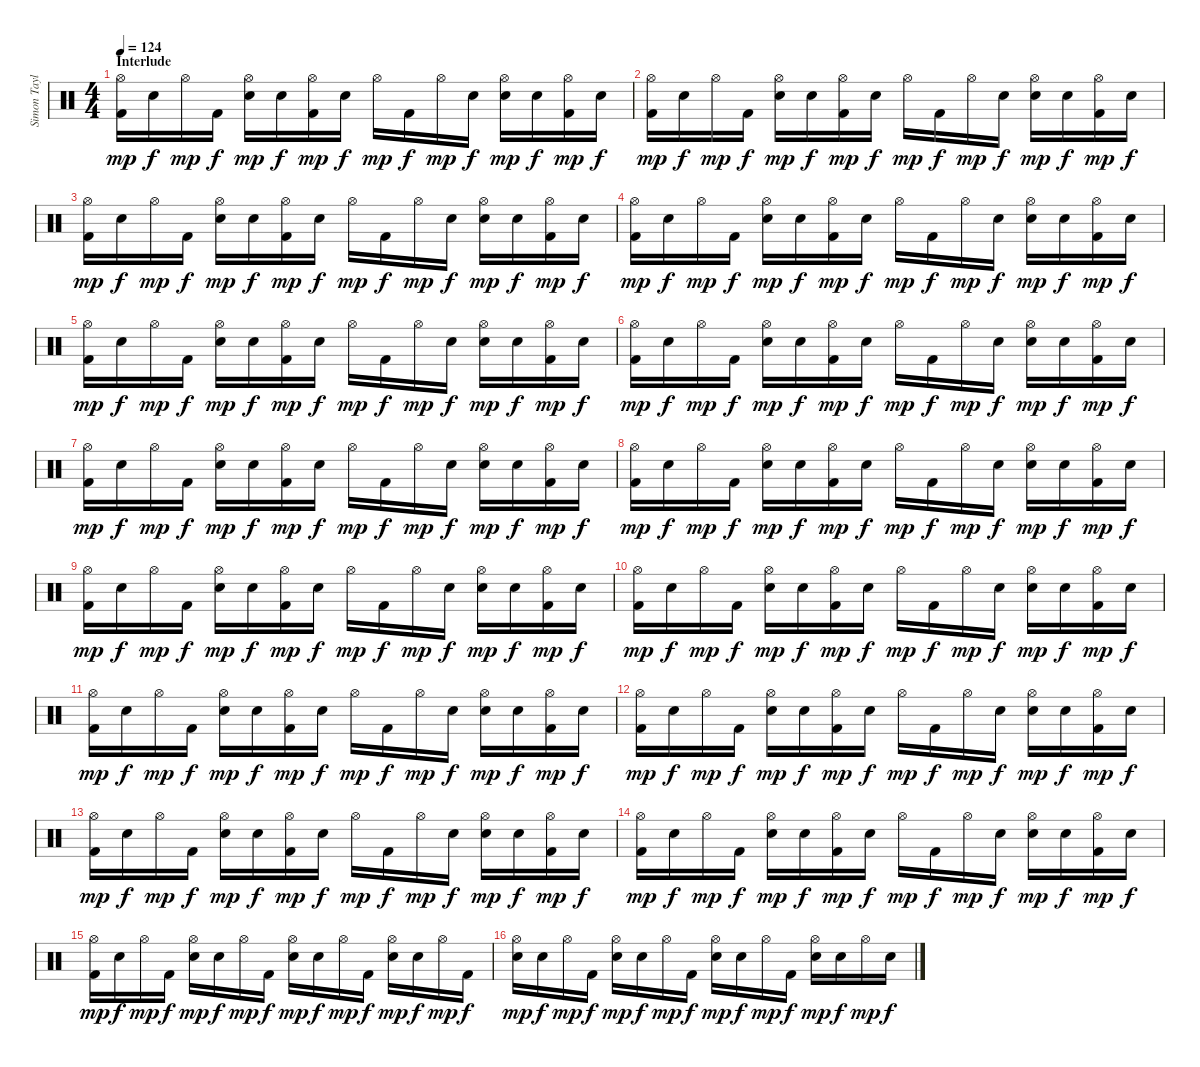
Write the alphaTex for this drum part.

\track ("Simon Taylor - Drums" "Simon Tayl") {instrument percussion}
\staff {score}
\articulation defaults
\ts (4 4)
\section ("" "Interlude")
\tempo 124
\clef neutral
\ks c
("Hi-Hat (open)" "Kick (hit) 2").16{dy mp volume 16 balance 8} "Snare (hit)".16{dy f} "Hi-Hat (open)".16{dy mp} "Kick (hit) 2".16{dy f} ("Hi-Hat (open)" "Electric Snare (hit)").16{dy mp} "Snare (hit)".16{dy f} ("Hi-Hat (open)" "Kick (hit) 2").16{dy mp} "Snare (hit)".16{dy f} "Hi-Hat (open)".16{dy mp} "Kick (hit) 2".16{dy f} "Hi-Hat (open)".16{dy mp} "Snare (hit)".16{dy f} ("Hi-Hat (open)" "Electric Snare (hit)").16{dy mp} "Snare (hit)".16{dy f} ("Hi-Hat (open)" "Kick (hit) 2").16{dy mp} "Snare (hit)".16{dy f} |
("Hi-Hat (open)" "Kick (hit) 2").16{dy mp} "Snare (hit)".16{dy f} "Hi-Hat (open)".16{dy mp} "Kick (hit) 2".16{dy f} ("Hi-Hat (open)" "Electric Snare (hit)").16{dy mp} "Snare (hit)".16{dy f} ("Hi-Hat (open)" "Kick (hit) 2").16{dy mp} "Snare (hit)".16{dy f} "Hi-Hat (open)".16{dy mp} "Kick (hit) 2".16{dy f} "Hi-Hat (open)".16{dy mp} "Snare (hit)".16{dy f} ("Hi-Hat (open)" "Electric Snare (hit)").16{dy mp} "Snare (hit)".16{dy f} ("Hi-Hat (open)" "Kick (hit) 2").16{dy mp} "Snare (hit)".16{dy f} |
("Hi-Hat (open)" "Kick (hit) 2").16{dy mp} "Snare (hit)".16{dy f} "Hi-Hat (open)".16{dy mp} "Kick (hit) 2".16{dy f} ("Hi-Hat (open)" "Electric Snare (hit)").16{dy mp} "Snare (hit)".16{dy f} ("Hi-Hat (open)" "Kick (hit) 2").16{dy mp} "Snare (hit)".16{dy f} "Hi-Hat (open)".16{dy mp} "Kick (hit) 2".16{dy f} "Hi-Hat (open)".16{dy mp} "Snare (hit)".16{dy f} ("Hi-Hat (open)" "Electric Snare (hit)").16{dy mp} "Snare (hit)".16{dy f} ("Hi-Hat (open)" "Kick (hit) 2").16{dy mp} "Snare (hit)".16{dy f} |
("Hi-Hat (open)" "Kick (hit) 2").16{dy mp} "Snare (hit)".16{dy f} "Hi-Hat (open)".16{dy mp} "Kick (hit) 2".16{dy f} ("Hi-Hat (open)" "Electric Snare (hit)").16{dy mp} "Snare (hit)".16{dy f} ("Hi-Hat (open)" "Kick (hit) 2").16{dy mp} "Snare (hit)".16{dy f} "Hi-Hat (open)".16{dy mp} "Kick (hit) 2".16{dy f} "Hi-Hat (open)".16{dy mp} "Snare (hit)".16{dy f} ("Hi-Hat (open)" "Electric Snare (hit)").16{dy mp} "Snare (hit)".16{dy f} ("Hi-Hat (open)" "Kick (hit) 2").16{dy mp} "Snare (hit)".16{dy f} |
("Hi-Hat (open)" "Kick (hit) 2").16{dy mp} "Snare (hit)".16{dy f} "Hi-Hat (open)".16{dy mp} "Kick (hit) 2".16{dy f} ("Hi-Hat (open)" "Electric Snare (hit)").16{dy mp} "Snare (hit)".16{dy f} ("Hi-Hat (open)" "Kick (hit) 2").16{dy mp} "Snare (hit)".16{dy f} "Hi-Hat (open)".16{dy mp} "Kick (hit) 2".16{dy f} "Hi-Hat (open)".16{dy mp} "Snare (hit)".16{dy f} ("Hi-Hat (open)" "Electric Snare (hit)").16{dy mp} "Snare (hit)".16{dy f} ("Hi-Hat (open)" "Kick (hit) 2").16{dy mp} "Snare (hit)".16{dy f} |
("Hi-Hat (open)" "Kick (hit) 2").16{dy mp} "Snare (hit)".16{dy f} "Hi-Hat (open)".16{dy mp} "Kick (hit) 2".16{dy f} ("Hi-Hat (open)" "Electric Snare (hit)").16{dy mp} "Snare (hit)".16{dy f} ("Hi-Hat (open)" "Kick (hit) 2").16{dy mp} "Snare (hit)".16{dy f} "Hi-Hat (open)".16{dy mp} "Kick (hit) 2".16{dy f} "Hi-Hat (open)".16{dy mp} "Snare (hit)".16{dy f} ("Hi-Hat (open)" "Electric Snare (hit)").16{dy mp} "Snare (hit)".16{dy f} ("Hi-Hat (open)" "Kick (hit) 2").16{dy mp} "Snare (hit)".16{dy f} |
("Hi-Hat (open)" "Kick (hit) 2").16{dy mp} "Snare (hit)".16{dy f} "Hi-Hat (open)".16{dy mp} "Kick (hit) 2".16{dy f} ("Hi-Hat (open)" "Electric Snare (hit)").16{dy mp} "Snare (hit)".16{dy f} ("Hi-Hat (open)" "Kick (hit) 2").16{dy mp} "Snare (hit)".16{dy f} "Hi-Hat (open)".16{dy mp} "Kick (hit) 2".16{dy f} "Hi-Hat (open)".16{dy mp} "Snare (hit)".16{dy f} ("Hi-Hat (open)" "Electric Snare (hit)").16{dy mp} "Snare (hit)".16{dy f} ("Hi-Hat (open)" "Kick (hit) 2").16{dy mp} "Snare (hit)".16{dy f} |
("Hi-Hat (open)" "Kick (hit) 2").16{dy mp} "Snare (hit)".16{dy f} "Hi-Hat (open)".16{dy mp} "Kick (hit) 2".16{dy f} ("Hi-Hat (open)" "Electric Snare (hit)").16{dy mp} "Snare (hit)".16{dy f} ("Hi-Hat (open)" "Kick (hit) 2").16{dy mp} "Snare (hit)".16{dy f} "Hi-Hat (open)".16{dy mp} "Kick (hit) 2".16{dy f} "Hi-Hat (open)".16{dy mp} "Snare (hit)".16{dy f} ("Hi-Hat (open)" "Electric Snare (hit)").16{dy mp} "Snare (hit)".16{dy f} ("Hi-Hat (open)" "Kick (hit) 2").16{dy mp} "Snare (hit)".16{dy f} |
("Hi-Hat (open)" "Kick (hit) 2").16{dy mp} "Snare (hit)".16{dy f} "Hi-Hat (open)".16{dy mp} "Kick (hit) 2".16{dy f} ("Hi-Hat (open)" "Electric Snare (hit)").16{dy mp} "Snare (hit)".16{dy f} ("Hi-Hat (open)" "Kick (hit) 2").16{dy mp} "Snare (hit)".16{dy f} "Hi-Hat (open)".16{dy mp} "Kick (hit) 2".16{dy f} "Hi-Hat (open)".16{dy mp} "Snare (hit)".16{dy f} ("Hi-Hat (open)" "Electric Snare (hit)").16{dy mp} "Snare (hit)".16{dy f} ("Hi-Hat (open)" "Kick (hit) 2").16{dy mp} "Snare (hit)".16{dy f} |
("Hi-Hat (open)" "Kick (hit) 2").16{dy mp} "Snare (hit)".16{dy f} "Hi-Hat (open)".16{dy mp} "Kick (hit) 2".16{dy f} ("Hi-Hat (open)" "Electric Snare (hit)").16{dy mp} "Snare (hit)".16{dy f} ("Hi-Hat (open)" "Kick (hit) 2").16{dy mp} "Snare (hit)".16{dy f} "Hi-Hat (open)".16{dy mp} "Kick (hit) 2".16{dy f} "Hi-Hat (open)".16{dy mp} "Snare (hit)".16{dy f} ("Hi-Hat (open)" "Electric Snare (hit)").16{dy mp} "Snare (hit)".16{dy f} ("Hi-Hat (open)" "Kick (hit) 2").16{dy mp} "Snare (hit)".16{dy f} |
("Hi-Hat (open)" "Kick (hit) 2").16{dy mp} "Snare (hit)".16{dy f} "Hi-Hat (open)".16{dy mp} "Kick (hit) 2".16{dy f} ("Hi-Hat (open)" "Electric Snare (hit)").16{dy mp} "Snare (hit)".16{dy f} ("Hi-Hat (open)" "Kick (hit) 2").16{dy mp} "Snare (hit)".16{dy f} "Hi-Hat (open)".16{dy mp} "Kick (hit) 2".16{dy f} "Hi-Hat (open)".16{dy mp} "Snare (hit)".16{dy f} ("Hi-Hat (open)" "Electric Snare (hit)").16{dy mp} "Snare (hit)".16{dy f} ("Hi-Hat (open)" "Kick (hit) 2").16{dy mp} "Snare (hit)".16{dy f} |
("Hi-Hat (open)" "Kick (hit) 2").16{dy mp} "Snare (hit)".16{dy f} "Hi-Hat (open)".16{dy mp} "Kick (hit) 2".16{dy f} ("Hi-Hat (open)" "Electric Snare (hit)").16{dy mp} "Snare (hit)".16{dy f} ("Hi-Hat (open)" "Kick (hit) 2").16{dy mp} "Snare (hit)".16{dy f} "Hi-Hat (open)".16{dy mp} "Kick (hit) 2".16{dy f} "Hi-Hat (open)".16{dy mp} "Snare (hit)".16{dy f} ("Hi-Hat (open)" "Electric Snare (hit)").16{dy mp} "Snare (hit)".16{dy f} ("Hi-Hat (open)" "Kick (hit) 2").16{dy mp} "Snare (hit)".16{dy f} |
("Hi-Hat (open)" "Kick (hit) 2").16{dy mp} "Snare (hit)".16{dy f} "Hi-Hat (open)".16{dy mp} "Kick (hit) 2".16{dy f} ("Hi-Hat (open)" "Electric Snare (hit)").16{dy mp} "Snare (hit)".16{dy f} ("Hi-Hat (open)" "Kick (hit) 2").16{dy mp} "Snare (hit)".16{dy f} "Hi-Hat (open)".16{dy mp} "Kick (hit) 2".16{dy f} "Hi-Hat (open)".16{dy mp} "Snare (hit)".16{dy f} ("Hi-Hat (open)" "Electric Snare (hit)").16{dy mp} "Snare (hit)".16{dy f} ("Hi-Hat (open)" "Kick (hit) 2").16{dy mp} "Snare (hit)".16{dy f} |
("Hi-Hat (open)" "Kick (hit) 2").16{dy mp} "Snare (hit)".16{dy f} "Hi-Hat (open)".16{dy mp} "Kick (hit) 2".16{dy f} ("Hi-Hat (open)" "Electric Snare (hit)").16{dy mp} "Snare (hit)".16{dy f} ("Hi-Hat (open)" "Kick (hit) 2").16{dy mp} "Snare (hit)".16{dy f} "Hi-Hat (open)".16{dy mp} "Kick (hit) 2".16{dy f} "Hi-Hat (open)".16{dy mp} "Snare (hit)".16{dy f} ("Hi-Hat (open)" "Electric Snare (hit)").16{dy mp} "Snare (hit)".16{dy f} ("Hi-Hat (open)" "Kick (hit) 2").16{dy mp} "Snare (hit)".16{dy f} |
("Hi-Hat (open)" "Kick (hit) 2").16{dy mp} "Snare (hit)".16{dy f} "Hi-Hat (open)".16{dy mp} "Kick (hit) 2".16{dy f} ("Hi-Hat (open)" "Electric Snare (hit)").16{dy mp} "Snare (hit)".16{dy f} "Hi-Hat (open)".16{dy mp} "Kick (hit) 2".16{dy f} ("Hi-Hat (open)" "Electric Snare (hit)").16{dy mp} "Snare (hit)".16{dy f} "Hi-Hat (open)".16{dy mp} "Kick (hit) 2".16{dy f} ("Hi-Hat (open)" "Electric Snare (hit)").16{dy mp} "Snare (hit)".16{dy f} "Hi-Hat (open)".16{dy mp} "Kick (hit) 2".16{dy f} |
("Hi-Hat (open)" "Electric Snare (hit)").16{dy mp} "Snare (hit)".16{dy f} "Hi-Hat (open)".16{dy mp} "Kick (hit) 2".16{dy f} ("Hi-Hat (open)" "Electric Snare (hit)").16{dy mp} "Snare (hit)".16{dy f} "Hi-Hat (open)".16{dy mp} "Kick (hit) 2".16{dy f} ("Hi-Hat (open)" "Electric Snare (hit)").16{dy mp} "Snare (hit)".16{dy f} "Hi-Hat (open)".16{dy mp} "Kick (hit) 2".16{dy f} ("Hi-Hat (open)" "Electric Snare (hit)").16{dy mp} "Snare (hit)".16{dy f} "Hi-Hat (open)".16{dy mp} "Snare (hit)".16{dy f}
